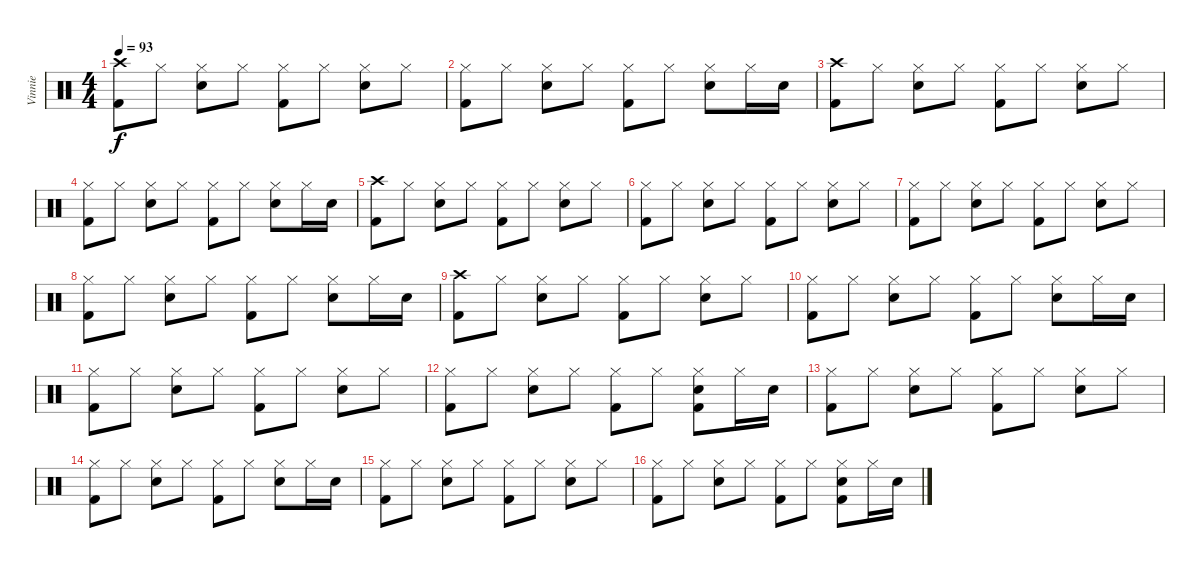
\track ("Vinnie" "Vinnie") {instrument percussion}
\staff {score}
\articulation defaults
\ts (4 4)
\tempo 93
\clef neutral
\ks c
("Crash high (hit)" "Kick (hit) 2").8{dy f} "Hi-Hat (closed)".8 ("Hi-Hat (closed)" "Electric Snare (hit)").8 "Hi-Hat (closed)".8 ("Hi-Hat (closed)" "Kick (hit) 2").8 "Hi-Hat (closed)".8 ("Hi-Hat (closed)" "Electric Snare (hit)").8 "Hi-Hat (closed)".8 |
("Hi-Hat (closed)" "Kick (hit) 2").8 "Hi-Hat (closed)".8 ("Hi-Hat (closed)" "Electric Snare (hit)").8 "Hi-Hat (closed)".8 ("Hi-Hat (closed)" "Kick (hit) 2").8 "Hi-Hat (closed)".8 ("Hi-Hat (closed)" "Electric Snare (hit)").8 "Hi-Hat (closed)".16 "Electric Snare (hit)".16 |
("Crash high (hit)" "Kick (hit) 2").8 "Hi-Hat (closed)".8 ("Hi-Hat (closed)" "Electric Snare (hit)").8 "Hi-Hat (closed)".8 ("Hi-Hat (closed)" "Kick (hit) 2").8 "Hi-Hat (closed)".8 ("Hi-Hat (closed)" "Electric Snare (hit)").8 "Hi-Hat (closed)".8 |
("Hi-Hat (closed)" "Kick (hit) 2").8 "Hi-Hat (closed)".8 ("Hi-Hat (closed)" "Electric Snare (hit)").8 "Hi-Hat (closed)".8 ("Hi-Hat (closed)" "Kick (hit) 2").8 "Hi-Hat (closed)".8 ("Hi-Hat (closed)" "Electric Snare (hit)").8 "Hi-Hat (closed)".16 "Electric Snare (hit)".16 |
("Crash high (hit)" "Kick (hit) 2").8 "Hi-Hat (closed)".8 ("Hi-Hat (closed)" "Electric Snare (hit)").8 "Hi-Hat (closed)".8 ("Hi-Hat (closed)" "Kick (hit) 2").8 "Hi-Hat (closed)".8 ("Hi-Hat (closed)" "Electric Snare (hit)").8 "Hi-Hat (closed)".8 |
("Hi-Hat (closed)" "Kick (hit) 2").8 "Hi-Hat (closed)".8 ("Hi-Hat (closed)" "Electric Snare (hit)").8 "Hi-Hat (closed)".8 ("Hi-Hat (closed)" "Kick (hit) 2").8 "Hi-Hat (closed)".8 ("Hi-Hat (closed)" "Electric Snare (hit)").8 "Hi-Hat (closed)".8 |
("Hi-Hat (closed)" "Kick (hit) 2").8 "Hi-Hat (closed)".8 ("Hi-Hat (closed)" "Electric Snare (hit)").8 "Hi-Hat (closed)".8 ("Hi-Hat (closed)" "Kick (hit) 2").8 "Hi-Hat (closed)".8 ("Hi-Hat (closed)" "Electric Snare (hit)").8 "Hi-Hat (closed)".8 |
("Hi-Hat (closed)" "Kick (hit) 2").8 "Hi-Hat (closed)".8 ("Hi-Hat (closed)" "Electric Snare (hit)").8 "Hi-Hat (closed)".8 ("Hi-Hat (closed)" "Kick (hit) 2").8 "Hi-Hat (closed)".8 ("Hi-Hat (closed)" "Electric Snare (hit)").8 "Hi-Hat (closed)".16 "Electric Snare (hit)".16 |
("Crash high (hit)" "Kick (hit) 2").8 "Hi-Hat (closed)".8 ("Hi-Hat (closed)" "Electric Snare (hit)").8 "Hi-Hat (closed)".8 ("Hi-Hat (closed)" "Kick (hit) 2").8 "Hi-Hat (closed)".8 ("Hi-Hat (closed)" "Electric Snare (hit)").8 "Hi-Hat (closed)".8 |
("Hi-Hat (closed)" "Kick (hit) 2").8 "Hi-Hat (closed)".8 ("Hi-Hat (closed)" "Electric Snare (hit)").8 "Hi-Hat (closed)".8 ("Hi-Hat (closed)" "Kick (hit) 2").8 "Hi-Hat (closed)".8 ("Hi-Hat (closed)" "Electric Snare (hit)").8 "Hi-Hat (closed)".16 "Electric Snare (hit)".16 |
("Hi-Hat (closed)" "Kick (hit) 2").8 "Hi-Hat (closed)".8 ("Hi-Hat (closed)" "Electric Snare (hit)").8 "Hi-Hat (closed)".8 ("Hi-Hat (closed)" "Kick (hit) 2").8 "Hi-Hat (closed)".8 ("Hi-Hat (closed)" "Electric Snare (hit)").8 "Hi-Hat (closed)".8 |
("Hi-Hat (closed)" "Kick (hit) 2").8 "Hi-Hat (closed)".8 ("Hi-Hat (closed)" "Electric Snare (hit)").8 "Hi-Hat (closed)".8 ("Hi-Hat (closed)" "Kick (hit) 2").8 "Hi-Hat (closed)".8 ("Hi-Hat (closed)" "Electric Snare (hit)" "Kick (hit) 2").8 "Hi-Hat (closed)".16 "Electric Snare (hit)".16 |
("Hi-Hat (closed)" "Kick (hit) 2").8 "Hi-Hat (closed)".8 ("Hi-Hat (closed)" "Electric Snare (hit)").8 "Hi-Hat (closed)".8 ("Hi-Hat (closed)" "Kick (hit) 2").8 "Hi-Hat (closed)".8 ("Hi-Hat (closed)" "Electric Snare (hit)").8 "Hi-Hat (closed)".8 |
("Hi-Hat (closed)" "Kick (hit) 2").8 "Hi-Hat (closed)".8 ("Hi-Hat (closed)" "Electric Snare (hit)").8 "Hi-Hat (closed)".8 ("Hi-Hat (closed)" "Kick (hit) 2").8 "Hi-Hat (closed)".8 ("Hi-Hat (closed)" "Electric Snare (hit)").8 "Hi-Hat (closed)".16 "Electric Snare (hit)".16 |
("Hi-Hat (closed)" "Kick (hit) 2").8 "Hi-Hat (closed)".8 ("Hi-Hat (closed)" "Electric Snare (hit)").8 "Hi-Hat (closed)".8 ("Hi-Hat (closed)" "Kick (hit) 2").8 "Hi-Hat (closed)".8 ("Hi-Hat (closed)" "Electric Snare (hit)").8 "Hi-Hat (closed)".8 |
("Hi-Hat (closed)" "Kick (hit) 2").8 "Hi-Hat (closed)".8 ("Hi-Hat (closed)" "Electric Snare (hit)").8 "Hi-Hat (closed)".8 ("Hi-Hat (closed)" "Kick (hit) 2").8 "Hi-Hat (closed)".8 ("Hi-Hat (closed)" "Electric Snare (hit)" "Kick (hit) 2").8 "Hi-Hat (closed)".16 "Electric Snare (hit)".16
